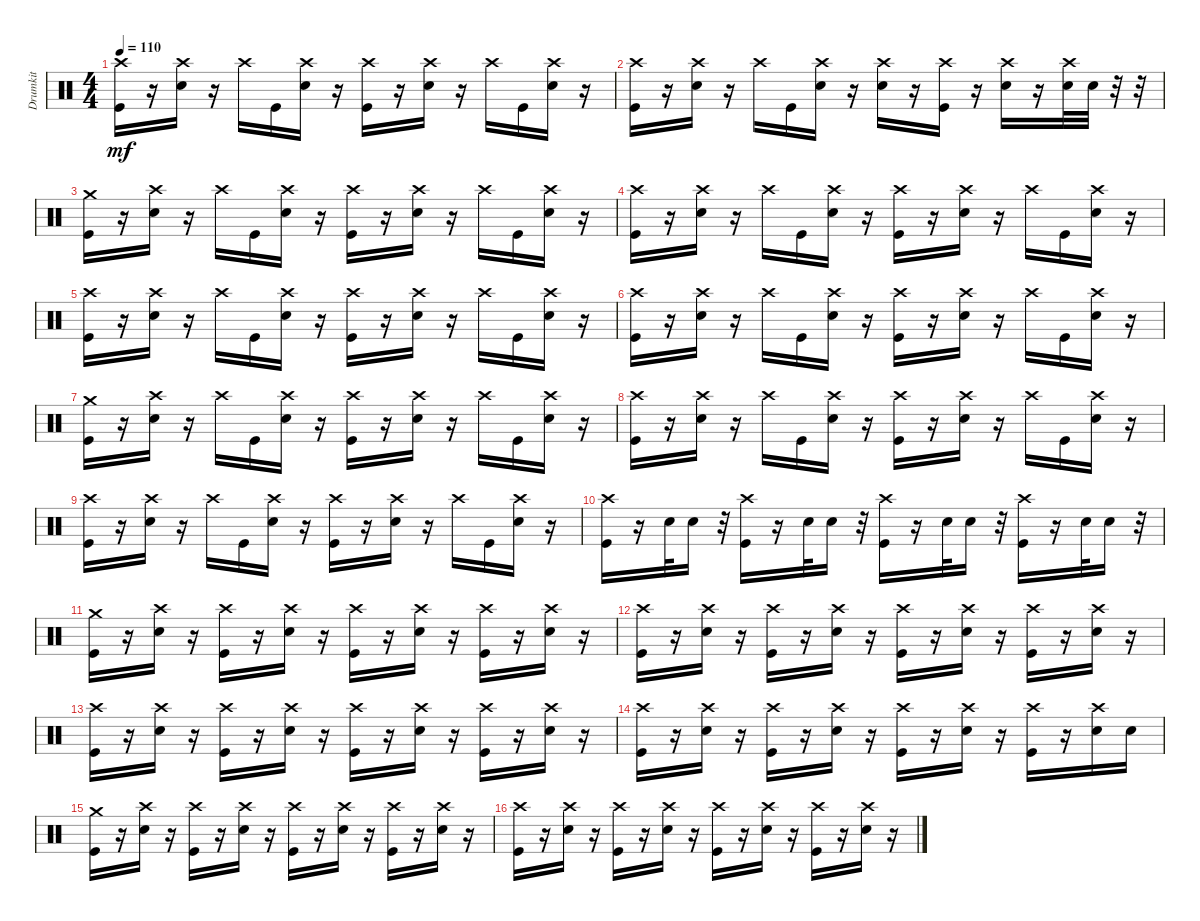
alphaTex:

\track ("Drumkit" "Drumkit") {instrument percussion}
\staff {score}
\articulation defaults
\ts (4 4)
\tempo 110
\clef neutral
\ks c
("Kick (hit)" "Crash high (hit)").16{dy mf} r.16 ("Crash high (hit)" "Snare (hit) 2").16 r.16 "Crash high (hit)".16 "Kick (hit)".16 ("Crash high (hit)" "Snare (hit) 2").16 r.16 ("Crash high (hit)" "Kick (hit)").16 r.16 ("Crash high (hit)" "Snare (hit) 2").16 r.16 "Crash high (hit)".16 "Kick (hit)".16 ("Crash high (hit)" "Snare (hit) 2").16 r.16 |
("Kick (hit)" "Crash high (hit)").16 r.16 ("Crash high (hit)" "Snare (hit) 2").16 r.16 "Crash high (hit)".16 "Kick (hit)".16 ("Crash high (hit)" "Snare (hit) 2").16 r.16 ("Crash high (hit)" "Snare (hit) 2").16 r.16 ("Crash high (hit)" "Kick (hit)").16 r.16 ("Crash high (hit)" "Snare (hit) 2").16 r.16 ("Crash high (hit)" "Snare (hit) 2").32 "Snare (hit) 2".32 r.32 r.32 |
("Kick (hit)" "Crash medium (hit)").16 r.16 ("Crash high (hit)" "Snare (hit) 2").16 r.16 "Crash high (hit)".16 "Kick (hit)".16 ("Crash high (hit)" "Snare (hit) 2").16 r.16 ("Crash high (hit)" "Kick (hit)").16 r.16 ("Crash high (hit)" "Snare (hit) 2").16 r.16 "Crash high (hit)".16 "Kick (hit)".16 ("Crash high (hit)" "Snare (hit) 2").16 r.16 |
("Kick (hit)" "Crash high (hit)").16 r.16 ("Crash high (hit)" "Snare (hit) 2").16 r.16 "Crash high (hit)".16 "Kick (hit)".16 ("Crash high (hit)" "Snare (hit) 2").16 r.16 ("Crash high (hit)" "Kick (hit)").16 r.16 ("Crash high (hit)" "Snare (hit) 2").16 r.16 "Crash high (hit)".16 "Kick (hit)".16 ("Crash high (hit)" "Snare (hit) 2").16 r.16 |
("Kick (hit)" "Crash high (hit)").16 r.16 ("Crash high (hit)" "Snare (hit) 2").16 r.16 "Crash high (hit)".16 "Kick (hit)".16 ("Crash high (hit)" "Snare (hit) 2").16 r.16 ("Crash high (hit)" "Kick (hit)").16 r.16 ("Crash high (hit)" "Snare (hit) 2").16 r.16 "Crash high (hit)".16 "Kick (hit)".16 ("Crash high (hit)" "Snare (hit) 2").16 r.16 |
("Kick (hit)" "Crash high (hit)").16 r.16 ("Crash high (hit)" "Snare (hit) 2").16 r.16 "Crash high (hit)".16 "Kick (hit)".16 ("Crash high (hit)" "Snare (hit) 2").16 r.16 ("Crash high (hit)" "Kick (hit)").16 r.16 ("Crash high (hit)" "Snare (hit) 2").16 r.16 "Crash high (hit)".16 "Kick (hit)".16 ("Crash high (hit)" "Snare (hit) 2").16 r.16 |
("Kick (hit)" "Crash medium (hit)").16 r.16 ("Crash high (hit)" "Snare (hit) 2").16 r.16 "Crash high (hit)".16 "Kick (hit)".16 ("Crash high (hit)" "Snare (hit) 2").16 r.16 ("Crash high (hit)" "Kick (hit)").16 r.16 ("Crash high (hit)" "Snare (hit) 2").16 r.16 "Crash high (hit)".16 "Kick (hit)".16 ("Crash high (hit)" "Snare (hit) 2").16 r.16 |
("Kick (hit)" "Crash high (hit)").16 r.16 ("Crash high (hit)" "Snare (hit) 2").16 r.16 "Crash high (hit)".16 "Kick (hit)".16 ("Crash high (hit)" "Snare (hit) 2").16 r.16 ("Crash high (hit)" "Kick (hit)").16 r.16 ("Crash high (hit)" "Snare (hit) 2").16 r.16 "Crash high (hit)".16 "Kick (hit)".16 ("Crash high (hit)" "Snare (hit) 2").16 r.16 |
("Kick (hit)" "Crash high (hit)").16 r.16 ("Crash high (hit)" "Snare (hit) 2").16 r.16 "Crash high (hit)".16 "Kick (hit)".16 ("Crash high (hit)" "Snare (hit) 2").16 r.16 ("Crash high (hit)" "Kick (hit)").16 r.16 ("Crash high (hit)" "Snare (hit) 2").16 r.16 "Crash high (hit)".16 "Kick (hit)".16 ("Crash high (hit)" "Snare (hit) 2").16 r.16 |
("Kick (hit)" "Crash high (hit)").16 r.16 "Snare (hit) 2".32 "Snare (hit) 2".16 r.32 ("Kick (hit)" "Crash high (hit)").16 r.16 "Snare (hit) 2".32 "Snare (hit) 2".16 r.32 ("Kick (hit)" "Crash high (hit)").16 r.16 "Snare (hit) 2".32 "Snare (hit) 2".16 r.32 ("Kick (hit)" "Crash high (hit)").16 r.16 "Snare (hit) 2".32 "Snare (hit) 2".16 r.32 |
("Crash medium (hit)" "Kick (hit)").16 r.16 ("Crash high (hit)" "Snare (hit) 2").16 r.16 ("Crash high (hit)" "Kick (hit)").16 r.16 ("Crash high (hit)" "Snare (hit) 2").16 r.16 ("Crash high (hit)" "Kick (hit)").16 r.16 ("Crash high (hit)" "Snare (hit) 2").16 r.16 ("Crash high (hit)" "Kick (hit)").16 r.16 ("Crash high (hit)" "Snare (hit) 2").16 r.16 |
("Kick (hit)" "Crash high (hit)").16 r.16 ("Crash high (hit)" "Snare (hit) 2").16 r.16 ("Crash high (hit)" "Kick (hit)").16 r.16 ("Crash high (hit)" "Snare (hit) 2").16 r.16 ("Crash high (hit)" "Kick (hit)").16 r.16 ("Crash high (hit)" "Snare (hit) 2").16 r.16 ("Crash high (hit)" "Kick (hit)").16 r.16 ("Crash high (hit)" "Snare (hit) 2").16 r.16 |
("Kick (hit)" "Crash high (hit)").16 r.16 ("Crash high (hit)" "Snare (hit) 2").16 r.16 ("Crash high (hit)" "Kick (hit)").16 r.16 ("Crash high (hit)" "Snare (hit) 2").16 r.16 ("Crash high (hit)" "Kick (hit)").16 r.16 ("Crash high (hit)" "Snare (hit) 2").16 r.16 ("Crash high (hit)" "Kick (hit)").16 r.16 ("Crash high (hit)" "Snare (hit) 2").16 r.16 |
("Kick (hit)" "Crash high (hit)").16 r.16 ("Crash high (hit)" "Snare (hit) 2").16 r.16 ("Crash high (hit)" "Kick (hit)").16 r.16 ("Crash high (hit)" "Snare (hit) 2").16 r.16 ("Crash high (hit)" "Kick (hit)").16 r.16 ("Crash high (hit)" "Snare (hit) 2").16 r.16 ("Crash high (hit)" "Kick (hit)").16 r.16 ("Crash high (hit)" "Snare (hit) 2").16 "Snare (hit) 2".16 |
("Crash medium (hit)" "Kick (hit)").16 r.16 ("Crash high (hit)" "Snare (hit) 2").16 r.16 ("Crash high (hit)" "Kick (hit)").16 r.16 ("Crash high (hit)" "Snare (hit) 2").16 r.16 ("Crash high (hit)" "Kick (hit)").16 r.16 ("Crash high (hit)" "Snare (hit) 2").16 r.16 ("Crash high (hit)" "Kick (hit)").16 r.16 ("Crash high (hit)" "Snare (hit) 2").16 r.16 |
("Kick (hit)" "Crash high (hit)").16 r.16 ("Crash high (hit)" "Snare (hit) 2").16 r.16 ("Crash high (hit)" "Kick (hit)").16 r.16 ("Crash high (hit)" "Snare (hit) 2").16 r.16 ("Crash high (hit)" "Kick (hit)").16 r.16 ("Crash high (hit)" "Snare (hit) 2").16 r.16 ("Crash high (hit)" "Kick (hit)").16 r.16 ("Crash high (hit)" "Snare (hit) 2").16 r.16
